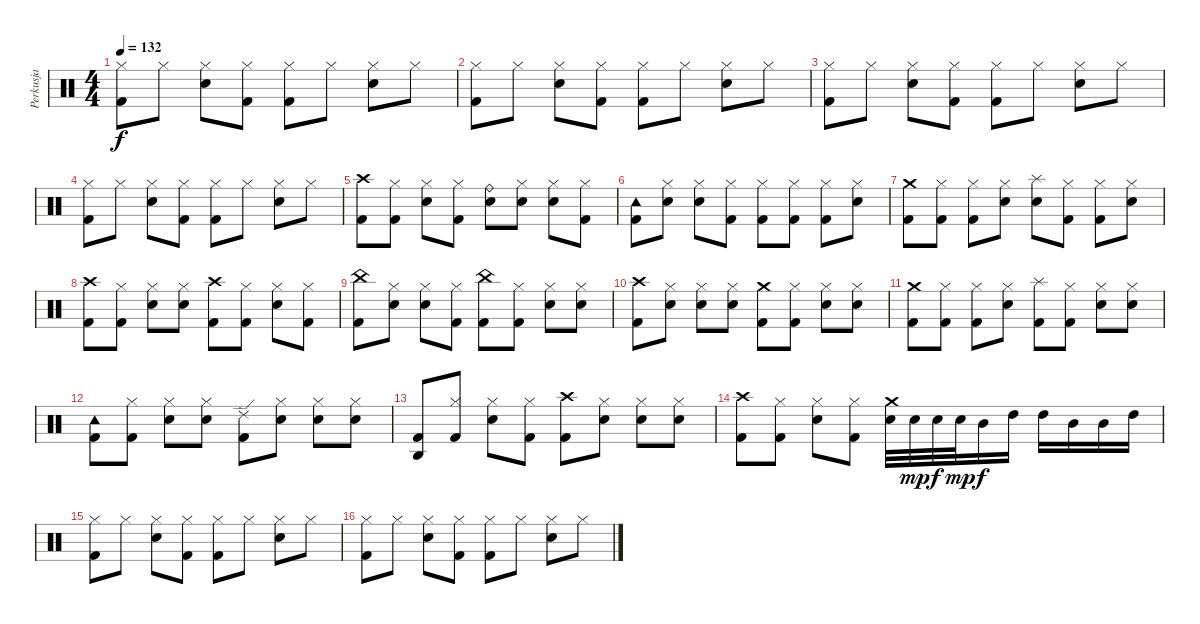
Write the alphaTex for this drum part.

\track ("Perkusja" "Perkusja") {instrument percussion}
\staff {score}
\articulation defaults
\ts (4 4)
\tempo 132
\clef neutral
\ks c
("Kick (hit) 2" "Hi-Hat (closed)").8{dy f} "Hi-Hat (closed)".8 ("Snare (hit) 2" "Hi-Hat (closed)").8 ("Kick (hit) 2" "Hi-Hat (closed)").8 ("Kick (hit) 2" "Hi-Hat (closed)").8 "Hi-Hat (closed)".8 ("Snare (hit) 2" "Hi-Hat (closed)").8 "Hi-Hat (closed)".8 |
("Kick (hit) 2" "Hi-Hat (closed)").8 "Hi-Hat (closed)".8 ("Snare (hit) 2" "Hi-Hat (closed)").8 ("Kick (hit) 2" "Hi-Hat (closed)").8 ("Kick (hit) 2" "Hi-Hat (closed)").8 "Hi-Hat (closed)".8 ("Snare (hit) 2" "Hi-Hat (closed)").8 "Hi-Hat (closed)".8 |
("Kick (hit) 2" "Hi-Hat (closed)").8 "Hi-Hat (closed)".8 ("Snare (hit) 2" "Hi-Hat (closed)").8 ("Kick (hit) 2" "Hi-Hat (closed)").8 ("Kick (hit) 2" "Hi-Hat (closed)").8 "Hi-Hat (closed)".8 ("Snare (hit) 2" "Hi-Hat (closed)").8 "Hi-Hat (closed)".8 |
("Kick (hit) 2" "Hi-Hat (closed)").8 "Hi-Hat (closed)".8 ("Snare (hit) 2" "Hi-Hat (closed)").8 ("Kick (hit) 2" "Hi-Hat (closed)").8 ("Kick (hit) 2" "Hi-Hat (closed)").8 "Hi-Hat (closed)".8 ("Snare (hit) 2" "Hi-Hat (closed)").8 "Hi-Hat (closed)".8 |
("Kick (hit) 2" "Crash high (hit)").8 ("Kick (hit) 2" "Hi-Hat (closed)").8 ("Snare (hit) 2" "Hi-Hat (closed)").8 ("Kick (hit) 2" "Hi-Hat (closed)").8 ("Snare (hit) 2" "Ride (bell)").8 ("Snare (hit) 2" "Hi-Hat (closed)").8 ("Snare (hit) 2" "Hi-Hat (closed)").8 ("Kick (hit) 2" "Hi-Hat (closed)").8 |
("Kick (hit) 2" "Tambourine (hit)").8 ("Snare (hit) 2" "Hi-Hat (closed)").8 ("Snare (hit) 2" "Hi-Hat (closed)").8 ("Kick (hit) 2" "Hi-Hat (closed)").8 ("Kick (hit) 2" "Hi-Hat (closed)").8 ("Kick (hit) 2" "Hi-Hat (closed)").8 ("Kick (hit) 2" "Hi-Hat (closed)").8 ("Snare (hit) 2" "Hi-Hat (closed)").8 |
("Kick (hit) 2" "Crash medium (hit)").8 ("Kick (hit) 2" "Hi-Hat (closed)").8 ("Kick (hit) 2" "Hi-Hat (closed)").8 ("Snare (hit) 2" "Hi-Hat (closed)").8 ("Snare (hit) 2" "Splash (hit)").8 ("Kick (hit) 2" "Hi-Hat (closed)").8 ("Kick (hit) 2" "Hi-Hat (closed)").8 ("Snare (hit) 2" "Hi-Hat (closed)").8 |
("Kick (hit) 2" "Crash high (hit)").8 ("Kick (hit) 2" "Hi-Hat (closed)").8 ("Snare (hit) 2" "Hi-Hat (closed)").8 ("Snare (hit) 2" "Hi-Hat (closed)").8 ("Kick (hit) 2" "Crash high (hit)").8 ("Kick (hit) 2" "Hi-Hat (closed)").8 ("Snare (hit) 2" "Hi-Hat (closed)").8 ("Kick (hit) 2" "Hi-Hat (closed)").8 |
("Kick (hit) 2" "China (hit)").8 ("Snare (hit) 2" "Hi-Hat (closed)").8 ("Snare (hit) 2" "Hi-Hat (closed)").8 ("Kick (hit) 2" "Hi-Hat (closed)").8 ("Kick (hit) 2" "China (hit)").8 ("Kick (hit) 2" "Hi-Hat (closed)").8 ("Snare (hit) 2" "Hi-Hat (closed)").8 ("Snare (hit) 2" "Hi-Hat (closed)").8 |
("Kick (hit) 2" "Crash high (hit)").8 ("Snare (hit) 2" "Hi-Hat (closed)").8 ("Snare (hit) 2" "Hi-Hat (closed)").8 ("Snare (hit) 2" "Hi-Hat (closed)").8 ("Kick (hit) 2" "Crash medium (hit)").8 ("Kick (hit) 2" "Hi-Hat (closed)").8 ("Snare (hit) 2" "Hi-Hat (closed)").8 ("Snare (hit) 2" "Hi-Hat (closed)").8 |
("Kick (hit) 2" "Crash medium (hit)").8 ("Kick (hit) 2" "Hi-Hat (closed)").8 ("Kick (hit) 2" "Hi-Hat (closed)").8 ("Snare (hit) 2" "Hi-Hat (closed)").8 ("Kick (hit) 2" "Splash (hit)").8 ("Kick (hit) 2" "Hi-Hat (closed)").8 ("Snare (hit) 2" "Hi-Hat (closed)").8 ("Snare (hit) 2" "Hi-Hat (closed)").8 |
("Kick (hit) 2" "Tambourine (hit)").8 ("Kick (hit) 2" "Hi-Hat (closed)").8 ("Snare (hit) 2" "Hi-Hat (closed)").8 ("Snare (hit) 2" "Hi-Hat (closed)").8 ("Kick (hit) 2" "Ride (edge) 2").8 ("Snare (hit) 2" "Hi-Hat (closed)").8 ("Snare (hit) 2" "Hi-Hat (closed)").8 ("Snare (hit) 2" "Hi-Hat (closed)").8 |
("Kick (hit) 2" "Agogo high (hit)").8 ("Kick (hit) 2" "Hi-Hat (closed)").8 ("Snare (hit) 2" "Hi-Hat (closed)").8 ("Kick (hit) 2" "Hi-Hat (closed)").8 ("Kick (hit) 2" "Crash high (hit)").8 ("Snare (hit) 2" "Hi-Hat (closed)").8 ("Snare (hit) 2" "Hi-Hat (closed)").8 ("Snare (hit) 2" "Hi-Hat (closed)").8 |
("Kick (hit) 2" "Crash high (hit)").8 ("Kick (hit) 2" "Hi-Hat (closed)").8 ("Snare (hit) 2" "Hi-Hat (closed)").8 ("Kick (hit) 2" "Hi-Hat (closed)").8 ("Snare (hit) 2" "Crash medium (hit)").32 "Snare (hit) 2".32{dy mp} "Snare (hit) 2".32{dy f} "Snare (hit) 2".32{dy mp} "Mid Tom (hit)".16{dy f} "High Tom (hit)".16 "High Tom (hit)".16 "Mid Tom (hit)".16 "Mid Tom (hit)".16 "High Tom (hit)".16 |
("Kick (hit) 2" "Hi-Hat (closed)").8 "Hi-Hat (closed)".8 ("Snare (hit) 2" "Hi-Hat (closed)").8 ("Kick (hit) 2" "Hi-Hat (closed)").8 ("Kick (hit) 2" "Hi-Hat (closed)").8 "Hi-Hat (closed)".8 ("Snare (hit) 2" "Hi-Hat (closed)").8 "Hi-Hat (closed)".8 |
("Kick (hit) 2" "Hi-Hat (closed)").8 "Hi-Hat (closed)".8 ("Snare (hit) 2" "Hi-Hat (closed)").8 ("Kick (hit) 2" "Hi-Hat (closed)").8 ("Kick (hit) 2" "Hi-Hat (closed)").8 "Hi-Hat (closed)".8 ("Snare (hit) 2" "Hi-Hat (closed)").8 "Hi-Hat (closed)".8
